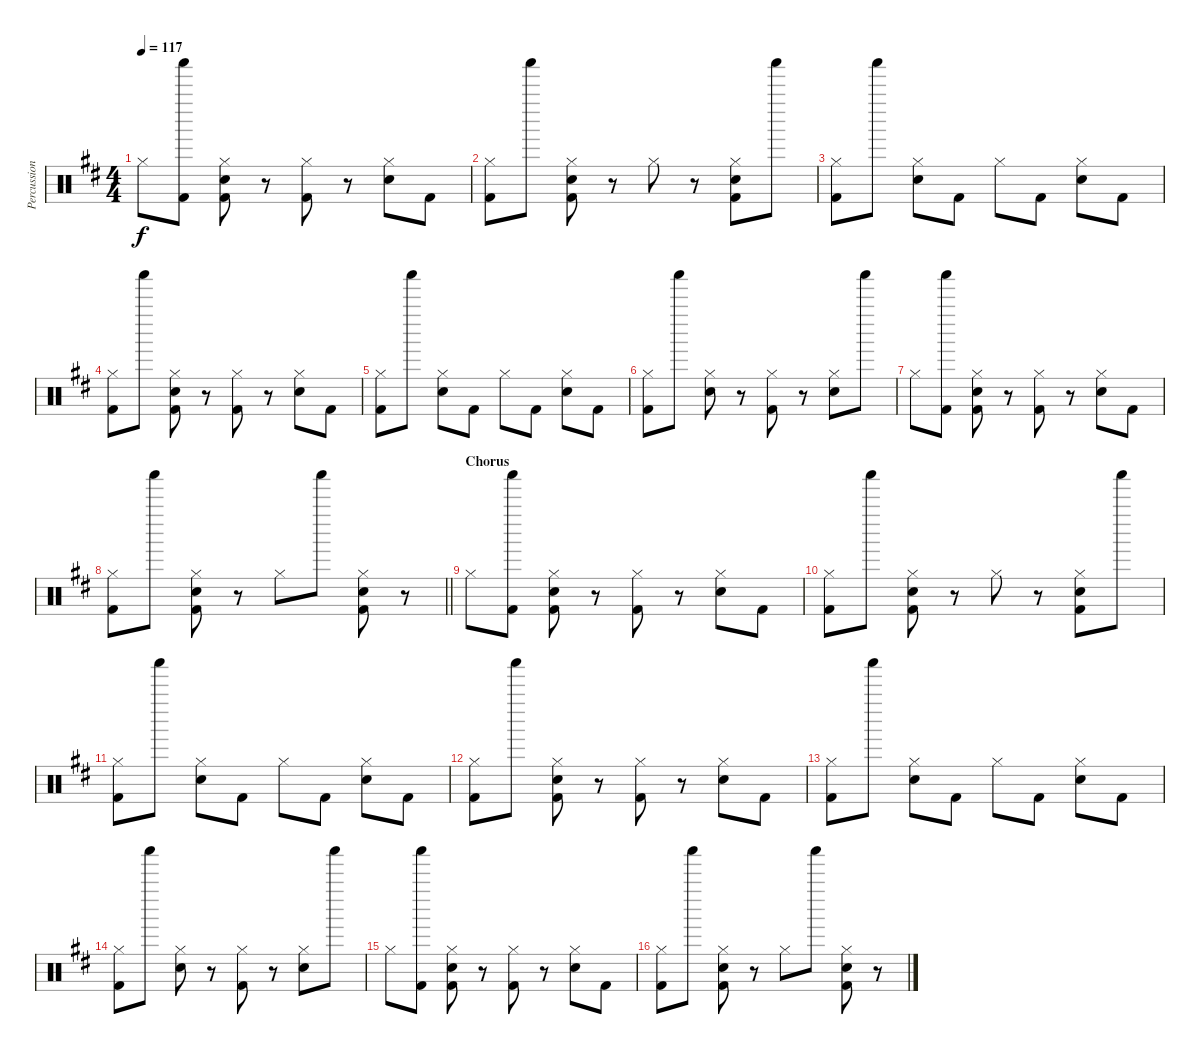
\track ("Percussion" "Percussion") {instrument percussion}
\staff {score}
\articulation defaults
\ts (4 4)
\tempo 117
\clef neutral
\ks d "Hi-Hat (closed)".8{dy f}
("Shaker (hit)" "Kick (hit) 2").8 ("Hi-Hat (closed)" "Snare (hit) 2" "Kick (hit) 2").8 r.8 ("Hi-Hat (closed)" "Kick (hit) 2").8 r.8 ("Hi-Hat (closed)" "Snare (hit) 2").8 "Kick (hit) 2".8 |
("Hi-Hat (closed)" "Kick (hit) 2").8 "Shaker (hit)".8 ("Hi-Hat (closed)" "Snare (hit) 2" "Kick (hit) 2").8 r.8 "Hi-Hat (closed)".8 r.8 ("Hi-Hat (closed)" "Snare (hit) 2" "Kick (hit) 2").8 "Shaker (hit)".8 |
("Hi-Hat (closed)" "Kick (hit) 2").8 "Shaker (hit)".8 ("Hi-Hat (closed)" "Snare (hit) 2").8 "Kick (hit) 2".8 "Hi-Hat (closed)".8 "Kick (hit) 2".8 ("Hi-Hat (closed)" "Snare (hit) 2").8 "Kick (hit) 2".8 |
("Hi-Hat (closed)" "Kick (hit) 2").8 "Shaker (hit)".8 ("Hi-Hat (closed)" "Snare (hit) 2" "Kick (hit) 2").8 r.8 ("Hi-Hat (closed)" "Kick (hit) 2").8 r.8 ("Hi-Hat (closed)" "Snare (hit) 2").8 "Kick (hit) 2".8 |
("Hi-Hat (closed)" "Kick (hit) 2").8 "Shaker (hit)".8 ("Hi-Hat (closed)" "Snare (hit) 2").8 "Kick (hit) 2".8 "Hi-Hat (closed)".8 "Kick (hit) 2".8 ("Hi-Hat (closed)" "Snare (hit) 2").8 "Kick (hit) 2".8 |
("Hi-Hat (closed)" "Kick (hit) 2").8 "Shaker (hit)".8 ("Hi-Hat (closed)" "Snare (hit) 2").8 r.8 ("Hi-Hat (closed)" "Kick (hit) 2").8 r.8 ("Hi-Hat (closed)" "Snare (hit) 2").8 "Shaker (hit)".8 |
"Hi-Hat (closed)".8 ("Shaker (hit)" "Kick (hit) 2").8 ("Hi-Hat (closed)" "Snare (hit) 2" "Kick (hit) 2").8 r.8 ("Hi-Hat (closed)" "Kick (hit) 2").8 r.8 ("Hi-Hat (closed)" "Snare (hit) 2").8 "Kick (hit) 2".8 |
\barLineRight lightlight
("Hi-Hat (closed)" "Kick (hit) 2").8 "Shaker (hit)".8 ("Hi-Hat (closed)" "Snare (hit) 2" "Kick (hit) 2").8 r.8 "Hi-Hat (closed)".8 "Shaker (hit)".8 ("Hi-Hat (closed)" "Snare (hit) 2" "Kick (hit) 2").8 r.8 |
\section ("" "Chorus")
"Hi-Hat (closed)".8 ("Shaker (hit)" "Kick (hit) 2").8 ("Hi-Hat (closed)" "Snare (hit) 2" "Kick (hit) 2").8 r.8 ("Hi-Hat (closed)" "Kick (hit) 2").8 r.8 ("Hi-Hat (closed)" "Snare (hit) 2").8 "Kick (hit) 2".8 |
("Hi-Hat (closed)" "Kick (hit) 2").8 "Shaker (hit)".8 ("Hi-Hat (closed)" "Snare (hit) 2" "Kick (hit) 2").8 r.8 "Hi-Hat (closed)".8 r.8 ("Hi-Hat (closed)" "Snare (hit) 2" "Kick (hit) 2").8 "Shaker (hit)".8 |
("Hi-Hat (closed)" "Kick (hit) 2").8 "Shaker (hit)".8 ("Hi-Hat (closed)" "Snare (hit) 2").8 "Kick (hit) 2".8 "Hi-Hat (closed)".8 "Kick (hit) 2".8 ("Hi-Hat (closed)" "Snare (hit) 2").8 "Kick (hit) 2".8 |
("Hi-Hat (closed)" "Kick (hit) 2").8 "Shaker (hit)".8 ("Hi-Hat (closed)" "Snare (hit) 2" "Kick (hit) 2").8 r.8 ("Hi-Hat (closed)" "Kick (hit) 2").8 r.8 ("Hi-Hat (closed)" "Snare (hit) 2").8 "Kick (hit) 2".8 |
("Hi-Hat (closed)" "Kick (hit) 2").8 "Shaker (hit)".8 ("Hi-Hat (closed)" "Snare (hit) 2").8 "Kick (hit) 2".8 "Hi-Hat (closed)".8 "Kick (hit) 2".8 ("Hi-Hat (closed)" "Snare (hit) 2").8 "Kick (hit) 2".8 |
("Hi-Hat (closed)" "Kick (hit) 2").8 "Shaker (hit)".8 ("Hi-Hat (closed)" "Snare (hit) 2").8 r.8 ("Hi-Hat (closed)" "Kick (hit) 2").8 r.8 ("Hi-Hat (closed)" "Snare (hit) 2").8 "Shaker (hit)".8 |
"Hi-Hat (closed)".8 ("Shaker (hit)" "Kick (hit) 2").8 ("Hi-Hat (closed)" "Snare (hit) 2" "Kick (hit) 2").8 r.8 ("Hi-Hat (closed)" "Kick (hit) 2").8 r.8 ("Hi-Hat (closed)" "Snare (hit) 2").8 "Kick (hit) 2".8 |
("Hi-Hat (closed)" "Kick (hit) 2").8 "Shaker (hit)".8 ("Hi-Hat (closed)" "Snare (hit) 2" "Kick (hit) 2").8 r.8 "Hi-Hat (closed)".8 "Shaker (hit)".8 ("Hi-Hat (closed)" "Snare (hit) 2" "Kick (hit) 2").8 r.8
